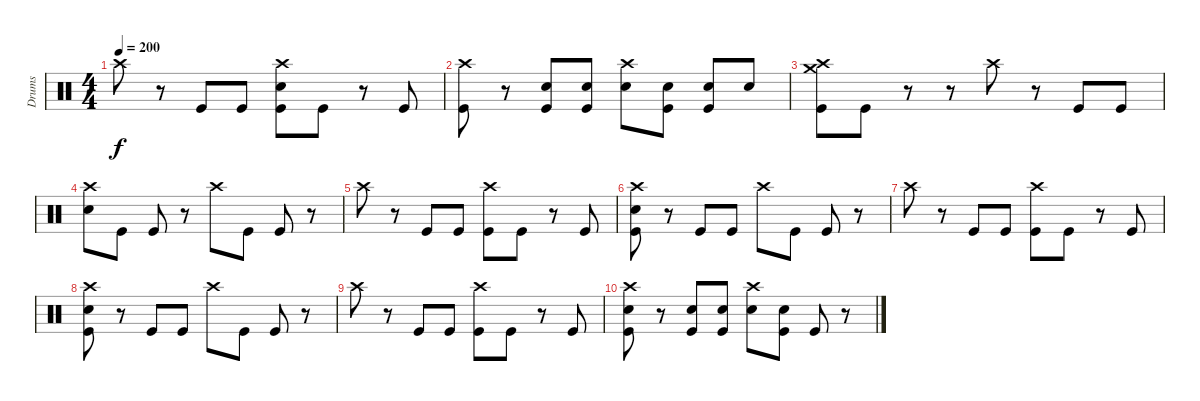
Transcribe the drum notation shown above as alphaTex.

\track ("Drums" "Drums") {instrument percussion}
\staff {score}
\articulation defaults
\ts (4 4)
\tempo 200
\clef neutral
\ks c "Crash high (hit)".8{dy f}
r.8 "Kick (hit)".8 "Kick (hit)".8 ("Crash high (hit)" "Electric Snare (hit)" "Kick (hit)").8 "Kick (hit)".8 r.8 "Kick (hit)".8 |
("Crash high (hit)" "Kick (hit)").8 r.8 ("Electric Snare (hit)" "Kick (hit)").8 ("Electric Snare (hit)" "Kick (hit)").8 ("Crash high (hit)" "Electric Snare (hit)").8 ("Electric Snare (hit)" "Kick (hit)").8 ("Electric Snare (hit)" "Kick (hit)").8 "Electric Snare (hit)".8 |
("Crash high (hit)" "Crash medium (hit)" "Kick (hit)").8 "Kick (hit)".8 r.8 r.8 "Crash high (hit)".8 r.8 "Kick (hit)".8 "Kick (hit)".8 |
("Crash high (hit)" "Electric Snare (hit)").8 "Kick (hit)".8 "Kick (hit)".8 r.8 "Crash high (hit)".8 "Kick (hit)".8 "Kick (hit)".8 r.8 |
"Crash high (hit)".8 r.8 "Kick (hit)".8 "Kick (hit)".8 ("Crash high (hit)" "Kick (hit)").8 "Kick (hit)".8 r.8 "Kick (hit)".8 |
("Crash high (hit)" "Electric Snare (hit)" "Kick (hit)").8 r.8 "Kick (hit)".8 "Kick (hit)".8 "Crash high (hit)".8 "Kick (hit)".8 "Kick (hit)".8 r.8 |
"Crash high (hit)".8 r.8 "Kick (hit)".8 "Kick (hit)".8 ("Crash high (hit)" "Kick (hit)").8 "Kick (hit)".8 r.8 "Kick (hit)".8 |
("Crash high (hit)" "Electric Snare (hit)" "Kick (hit)").8 r.8 "Kick (hit)".8 "Kick (hit)".8 "Crash high (hit)".8 "Kick (hit)".8 "Kick (hit)".8 r.8 |
"Crash high (hit)".8 r.8 "Kick (hit)".8 "Kick (hit)".8 ("Crash high (hit)" "Kick (hit)").8 "Kick (hit)".8 r.8 "Kick (hit)".8 |
("Crash high (hit)" "Electric Snare (hit)" "Kick (hit)").8 r.8 ("Electric Snare (hit)" "Kick (hit)").8 ("Electric Snare (hit)" "Kick (hit)").8 ("Crash high (hit)" "Electric Snare (hit)").8 ("Electric Snare (hit)" "Kick (hit)").8 "Kick (hit)".8 r.8
